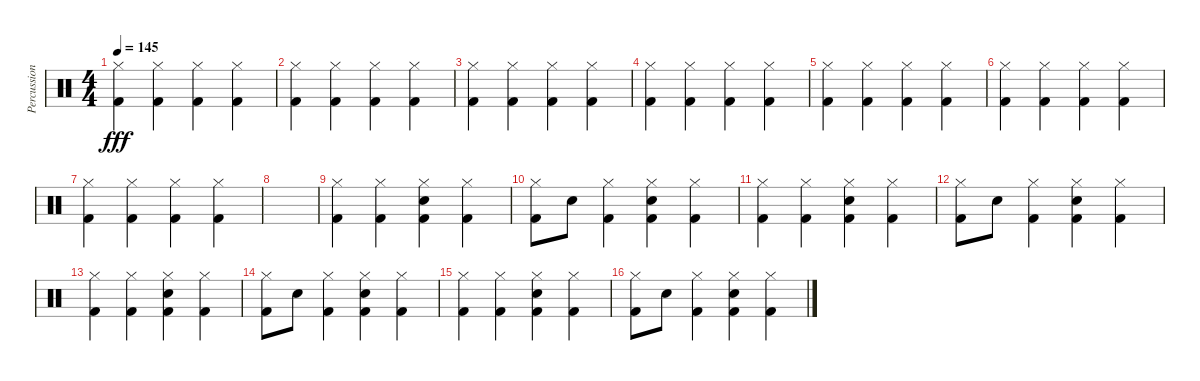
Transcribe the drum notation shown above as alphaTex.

\track ("Percussion" "Percussion") {instrument percussion}
\staff {score}
\articulation defaults
\ts (4 4)
\tempo 145
\clef neutral
\ks c
("Hi-Hat (closed)" "Kick (hit) 2").4{dy fff} ("Hi-Hat (closed)" "Kick (hit) 2").4 ("Hi-Hat (closed)" "Kick (hit) 2").4 ("Hi-Hat (closed)" "Kick (hit) 2").4 |
("Hi-Hat (closed)" "Kick (hit) 2").4 ("Hi-Hat (closed)" "Kick (hit) 2").4 ("Hi-Hat (closed)" "Kick (hit) 2").4 ("Hi-Hat (closed)" "Kick (hit) 2").4 |
("Hi-Hat (closed)" "Kick (hit) 2").4 ("Hi-Hat (closed)" "Kick (hit) 2").4 ("Hi-Hat (closed)" "Kick (hit) 2").4 ("Hi-Hat (closed)" "Kick (hit) 2").4 |
("Hi-Hat (closed)" "Kick (hit) 2").4 ("Hi-Hat (closed)" "Kick (hit) 2").4 ("Hi-Hat (closed)" "Kick (hit) 2").4 ("Hi-Hat (closed)" "Kick (hit) 2").4 |
("Hi-Hat (closed)" "Kick (hit) 2").4 ("Hi-Hat (closed)" "Kick (hit) 2").4 ("Hi-Hat (closed)" "Kick (hit) 2").4 ("Hi-Hat (closed)" "Kick (hit) 2").4 |
("Hi-Hat (closed)" "Kick (hit) 2").4 ("Hi-Hat (closed)" "Kick (hit) 2").4 ("Hi-Hat (closed)" "Kick (hit) 2").4 ("Hi-Hat (closed)" "Kick (hit) 2").4 |
("Hi-Hat (closed)" "Kick (hit) 2").4 ("Hi-Hat (closed)" "Kick (hit) 2").4 ("Hi-Hat (closed)" "Kick (hit) 2").4 ("Hi-Hat (closed)" "Kick (hit) 2").4 |
|
("Hi-Hat (closed)" "Kick (hit) 2").4 ("Hi-Hat (closed)" "Kick (hit) 2").4 ("Hi-Hat (closed)" "Hand Clap (hit)" "Kick (hit) 2").4 ("Hi-Hat (closed)" "Kick (hit) 2").4 |
("Hi-Hat (closed)" "Kick (hit) 2").8 "Hand Clap (hit)".8 ("Hi-Hat (closed)" "Kick (hit) 2").4 ("Hi-Hat (closed)" "Hand Clap (hit)" "Kick (hit) 2").4 ("Hi-Hat (closed)" "Kick (hit) 2").4 |
("Hi-Hat (closed)" "Kick (hit) 2").4 ("Hi-Hat (closed)" "Kick (hit) 2").4 ("Hi-Hat (closed)" "Hand Clap (hit)" "Kick (hit) 2").4 ("Hi-Hat (closed)" "Kick (hit) 2").4 |
("Hi-Hat (closed)" "Kick (hit) 2").8 "Hand Clap (hit)".8 ("Hi-Hat (closed)" "Kick (hit) 2").4 ("Hi-Hat (closed)" "Hand Clap (hit)" "Kick (hit) 2").4 ("Hi-Hat (closed)" "Kick (hit) 2").4 |
("Hi-Hat (closed)" "Kick (hit) 2").4 ("Hi-Hat (closed)" "Kick (hit) 2").4 ("Hi-Hat (closed)" "Hand Clap (hit)" "Kick (hit) 2").4 ("Hi-Hat (closed)" "Kick (hit) 2").4 |
("Hi-Hat (closed)" "Kick (hit) 2").8 "Hand Clap (hit)".8 ("Hi-Hat (closed)" "Kick (hit) 2").4 ("Hi-Hat (closed)" "Hand Clap (hit)" "Kick (hit) 2").4 ("Hi-Hat (closed)" "Kick (hit) 2").4 |
("Hi-Hat (closed)" "Kick (hit) 2").4 ("Hi-Hat (closed)" "Kick (hit) 2").4 ("Hi-Hat (closed)" "Hand Clap (hit)" "Kick (hit) 2").4 ("Hi-Hat (closed)" "Kick (hit) 2").4 |
("Hi-Hat (closed)" "Kick (hit) 2").8 "Hand Clap (hit)".8 ("Hi-Hat (closed)" "Kick (hit) 2").4 ("Hi-Hat (closed)" "Hand Clap (hit)" "Kick (hit) 2").4 ("Hi-Hat (closed)" "Kick (hit) 2").4
